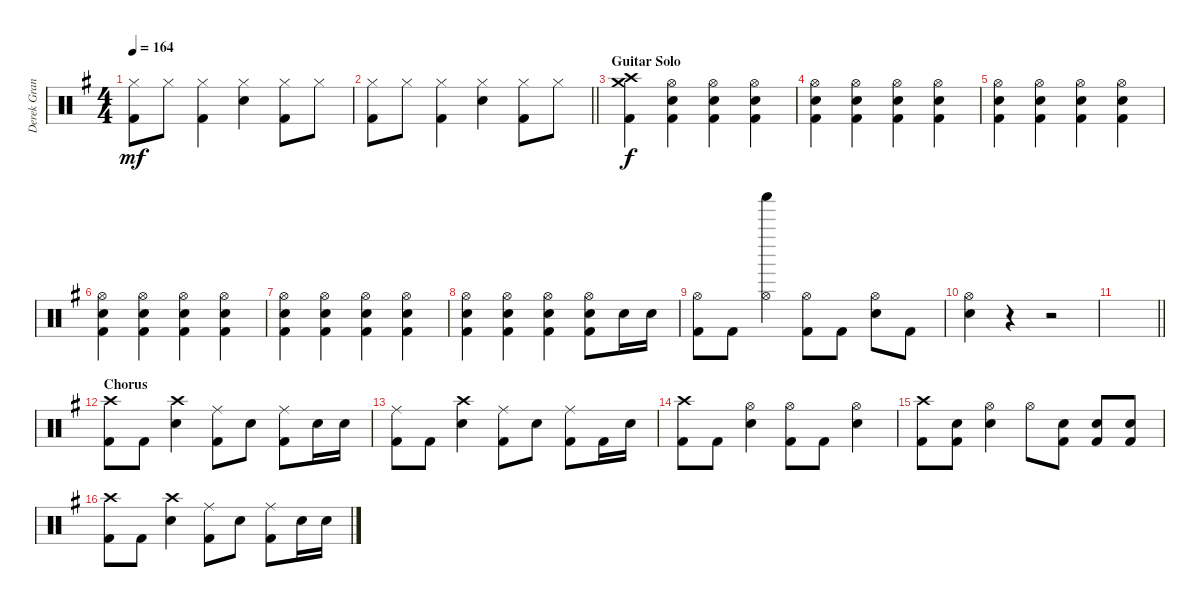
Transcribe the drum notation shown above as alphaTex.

\track ("Derek Grant - Drums" "Derek Gran") {instrument percussion}
\staff {score}
\articulation defaults
\ts (4 4)
\tempo 164
\clef neutral
\ks eminor
("Hi-Hat (closed)" "Kick (hit) 2").8{dy mf} "Hi-Hat (closed)".8 ("Kick (hit) 2" "Hi-Hat (closed)").4 ("Snare (hit) 2" "Hi-Hat (closed)").4 ("Hi-Hat (closed)" "Kick (hit) 2").8 "Hi-Hat (closed)".8 |
\barLineRight lightlight
("Hi-Hat (closed)" "Kick (hit) 2").8 "Hi-Hat (closed)".8 ("Kick (hit) 2" "Hi-Hat (closed)").4 ("Snare (hit) 2" "Hi-Hat (closed)").4 ("Hi-Hat (closed)" "Kick (hit) 2").8 "Hi-Hat (closed)".8 |
\section ("" "Guitar Solo")
("Crash high (hit)" "Crash medium (hit)" "Kick (hit) 2").4{dy f} ("Hi-Hat (open)" "Kick (hit) 2" "Snare (hit) 2").4 ("Hi-Hat (open)" "Kick (hit) 2" "Snare (hit) 2").4 ("Hi-Hat (open)" "Kick (hit) 2" "Snare (hit) 2").4 |
("Hi-Hat (open)" "Kick (hit) 2" "Snare (hit) 2").4 ("Hi-Hat (open)" "Kick (hit) 2" "Snare (hit) 2").4 ("Hi-Hat (open)" "Kick (hit) 2" "Snare (hit) 2").4 ("Hi-Hat (open)" "Kick (hit) 2" "Snare (hit) 2").4 |
("Hi-Hat (open)" "Kick (hit) 2" "Snare (hit) 2").4 ("Hi-Hat (open)" "Kick (hit) 2" "Snare (hit) 2").4 ("Hi-Hat (open)" "Kick (hit) 2" "Snare (hit) 2").4 ("Hi-Hat (open)" "Kick (hit) 2" "Snare (hit) 2").4 |
("Hi-Hat (open)" "Kick (hit) 2" "Snare (hit) 2").4 ("Hi-Hat (open)" "Kick (hit) 2" "Snare (hit) 2").4 ("Hi-Hat (open)" "Kick (hit) 2" "Snare (hit) 2").4 ("Hi-Hat (open)" "Kick (hit) 2" "Snare (hit) 2").4 |
("Hi-Hat (open)" "Kick (hit) 2" "Snare (hit) 2").4 ("Hi-Hat (open)" "Kick (hit) 2" "Snare (hit) 2").4 ("Hi-Hat (open)" "Kick (hit) 2" "Snare (hit) 2").4 ("Hi-Hat (open)" "Kick (hit) 2" "Snare (hit) 2").4 |
("Hi-Hat (open)" "Kick (hit) 2" "Snare (hit) 2").4 ("Hi-Hat (open)" "Kick (hit) 2" "Snare (hit) 2").4 ("Hi-Hat (open)" "Kick (hit) 2" "Snare (hit) 2").4 ("Hi-Hat (open)" "Kick (hit) 2" "Snare (hit) 2").8 "Snare (hit) 2".16 "Snare (hit) 2".16 |
("Kick (hit) 2" "Hi-Hat (open)").8 "Kick (hit) 2".8 ("Shaker (hit)" "Hi-Hat (open)").4 ("Kick (hit) 2" "Hi-Hat (open)").8 "Kick (hit) 2".8 ("Snare (hit) 2" "Hi-Hat (open)").8 "Kick (hit) 2".8 |
("Snare (hit) 2" "Hi-Hat (open)").4 r.4 r.2 |
\barLineRight lightlight
|
\section ("" "Chorus")
("Kick (hit) 2" "Crash high (hit)").8 "Kick (hit) 2".8 ("Snare (hit) 2" "Crash high (hit)").4 ("Kick (hit) 2" "Ride (middle)").8 "Electric Snare (hit)".8 ("Kick (hit) 2" "Ride (middle)").8 "Electric Snare (hit)".16 "Electric Snare (hit)".16 |
("Kick (hit) 2" "Ride (middle)").8 "Kick (hit) 2".8 ("Snare (hit) 2" "Crash high (hit)").4 ("Kick (hit) 2" "Ride (middle)").8 "Snare (hit) 2".8 ("Kick (hit) 2" "Ride (middle)").8 "Kick (hit) 2".16 "Snare (hit) 2".16 |
("Kick (hit) 2" "Crash high (hit)").8 "Kick (hit) 2".8 ("Snare (hit) 2" "Hi-Hat (open)").4 ("Kick (hit) 2" "Hi-Hat (open)").8 "Kick (hit) 2".8 ("Snare (hit) 2" "Hi-Hat (open)").4 |
("Kick (hit) 2" "Crash high (hit)").8 ("Kick (hit) 2" "Snare (hit) 2").8 ("Snare (hit) 2" "Hi-Hat (open)").4 "Hi-Hat (open)".8 ("Snare (hit) 2" "Kick (hit) 2").8 ("Snare (hit) 2" "Kick (hit) 2").8 ("Snare (hit) 2" "Kick (hit) 2").8 |
("Kick (hit) 2" "Crash high (hit)").8 "Kick (hit) 2".8 ("Snare (hit) 2" "Crash high (hit)").4 ("Kick (hit) 2" "Ride (middle)").8 "Electric Snare (hit)".8 ("Kick (hit) 2" "Ride (middle)").8 "Electric Snare (hit)".16 "Electric Snare (hit)".16
